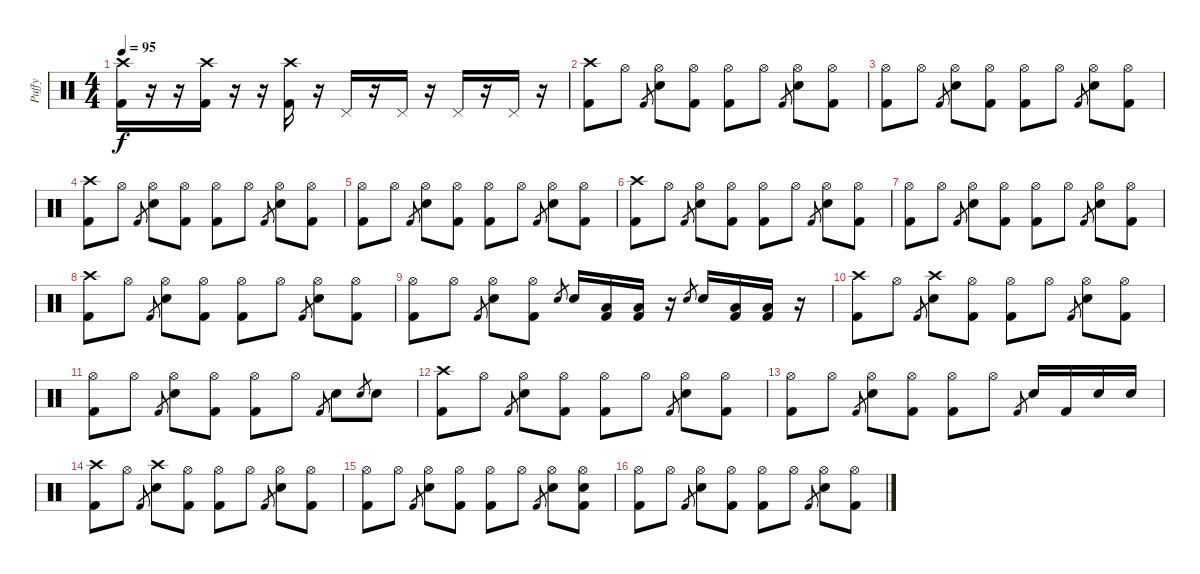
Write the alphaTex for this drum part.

\track ("Puffy" "Puffy") {instrument percussion}
\staff {score}
\articulation defaults
\ts (4 4)
\tempo 95
\clef neutral
\ks c
("Crash high (hit)" "Kick (hit) 2").16{dy f} r.16 r.16 ("Crash high (hit)" "Kick (hit) 2").16 r.16 r.16 ("Crash high (hit)" "Kick (hit) 2").16 r.16 "Pedal Hi-Hat (hit)".16 r.16 "Pedal Hi-Hat (hit)".16 r.16 "Pedal Hi-Hat (hit)".16 r.16 "Pedal Hi-Hat (hit)".16 r.16 |
("Crash high (hit)" "Kick (hit) 2").8 "Hi-Hat (open)".8 "Kick (hit) 2".8{gr} ("Hi-Hat (open)" "Snare (hit) 2").8 ("Hi-Hat (open)" "Kick (hit) 2").8 ("Hi-Hat (open)" "Kick (hit) 2").8 "Hi-Hat (open)".8 "Kick (hit) 2".8{gr} ("Hi-Hat (open)" "Snare (hit) 2").8 ("Hi-Hat (open)" "Kick (hit) 2").8 |
("Hi-Hat (open)" "Kick (hit) 2").8 "Hi-Hat (open)".8 "Kick (hit) 2".8{gr} ("Hi-Hat (open)" "Snare (hit) 2").8 ("Hi-Hat (open)" "Kick (hit) 2").8 ("Hi-Hat (open)" "Kick (hit) 2").8 "Hi-Hat (open)".8 "Kick (hit) 2".8{gr} ("Hi-Hat (open)" "Snare (hit) 2").8 ("Hi-Hat (open)" "Kick (hit) 2").8 |
("Crash high (hit)" "Kick (hit) 2").8 "Hi-Hat (open)".8 "Kick (hit) 2".8{gr} ("Hi-Hat (open)" "Snare (hit) 2").8 ("Hi-Hat (open)" "Kick (hit) 2").8 ("Hi-Hat (open)" "Kick (hit) 2").8 "Hi-Hat (open)".8 "Kick (hit) 2".8{gr} ("Hi-Hat (open)" "Snare (hit) 2").8 ("Hi-Hat (open)" "Kick (hit) 2").8 |
("Hi-Hat (open)" "Kick (hit) 2").8 "Hi-Hat (open)".8 "Kick (hit) 2".8{gr} ("Hi-Hat (open)" "Snare (hit) 2").8 ("Hi-Hat (open)" "Kick (hit) 2").8 ("Hi-Hat (open)" "Kick (hit) 2").8 "Hi-Hat (open)".8 "Kick (hit) 2".8{gr} ("Hi-Hat (open)" "Snare (hit) 2").8 ("Hi-Hat (open)" "Kick (hit) 2").8 |
("Crash high (hit)" "Kick (hit) 2").8 "Hi-Hat (open)".8 "Kick (hit) 2".8{gr} ("Hi-Hat (open)" "Snare (hit) 2").8 ("Hi-Hat (open)" "Kick (hit) 2").8 ("Hi-Hat (open)" "Kick (hit) 2").8 "Hi-Hat (open)".8 "Kick (hit) 2".8{gr} ("Hi-Hat (open)" "Snare (hit) 2").8 ("Hi-Hat (open)" "Kick (hit) 2").8 |
("Hi-Hat (open)" "Kick (hit) 2").8 "Hi-Hat (open)".8 "Kick (hit) 2".8{gr} ("Hi-Hat (open)" "Snare (hit) 2").8 ("Hi-Hat (open)" "Kick (hit) 2").8 ("Hi-Hat (open)" "Kick (hit) 2").8 "Hi-Hat (open)".8 "Kick (hit) 2".8{gr} ("Hi-Hat (open)" "Snare (hit) 2").8 ("Hi-Hat (open)" "Kick (hit) 2").8 |
("Crash high (hit)" "Kick (hit) 2").8 "Hi-Hat (open)".8 "Kick (hit) 2".8{gr} ("Hi-Hat (open)" "Snare (hit) 2").8 ("Hi-Hat (open)" "Kick (hit) 2").8 ("Hi-Hat (open)" "Kick (hit) 2").8 "Hi-Hat (open)".8 "Kick (hit) 2".8{gr} ("Hi-Hat (open)" "Snare (hit) 2").8 ("Hi-Hat (open)" "Kick (hit) 2").8 |
("Hi-Hat (open)" "Kick (hit) 2").8 "Hi-Hat (open)".8 "Kick (hit) 2".8{gr} ("Hi-Hat (open)" "Snare (hit) 2").8 ("Hi-Hat (open)" "Kick (hit) 2").8 "Snare (hit) 2".8{gr} "Snare (hit) 2".16 ("Low Floor Tom (hit)" "Kick (hit) 2").16 ("Low Floor Tom (hit)" "Kick (hit) 2").16 r.16 "Snare (hit) 2".8{gr} "Snare (hit) 2".16 ("Low Floor Tom (hit)" "Kick (hit) 2").16 ("Low Floor Tom (hit)" "Kick (hit) 2").16 r.16 |
("Crash high (hit)" "Kick (hit) 2").8 "Hi-Hat (open)".8 "Kick (hit) 2".8{gr} ("Crash high (hit)" "Snare (hit) 2").8 ("Hi-Hat (open)" "Kick (hit) 2").8 ("Hi-Hat (open)" "Kick (hit) 2").8 "Hi-Hat (open)".8 "Kick (hit) 2".8{gr} ("Hi-Hat (open)" "Snare (hit) 2").8 ("Hi-Hat (open)" "Kick (hit) 2").8 |
("Hi-Hat (open)" "Kick (hit) 2").8 "Hi-Hat (open)".8 "Kick (hit) 2".8{gr} ("Hi-Hat (open)" "Snare (hit) 2").8 ("Hi-Hat (open)" "Kick (hit) 2").8 ("Hi-Hat (open)" "Kick (hit) 2").8 "Hi-Hat (open)".8 "Kick (hit) 2".8{gr} "Snare (hit) 2".8 "Snare (hit) 2".8{gr} "Snare (hit) 2".8 |
("Crash high (hit)" "Kick (hit) 2").8 "Hi-Hat (open)".8 "Kick (hit) 2".8{gr} ("Hi-Hat (open)" "Snare (hit) 2").8 ("Hi-Hat (open)" "Kick (hit) 2").8 ("Hi-Hat (open)" "Kick (hit) 2").8 "Hi-Hat (open)".8 "Kick (hit) 2".8{gr} ("Hi-Hat (open)" "Snare (hit) 2").8 ("Hi-Hat (open)" "Kick (hit) 2").8 |
("Hi-Hat (open)" "Kick (hit) 2").8 "Hi-Hat (open)".8 "Kick (hit) 2".8{gr} ("Hi-Hat (open)" "Snare (hit) 2").8 ("Hi-Hat (open)" "Kick (hit) 2").8 ("Hi-Hat (open)" "Kick (hit) 2").8 "Hi-Hat (open)".8 "Kick (hit) 2".8{gr} "Snare (hit) 2".16 "Kick (hit) 2".16 "Snare (hit) 2".16 "Snare (hit) 2".16 |
("Crash high (hit)" "Kick (hit) 2").8 "Hi-Hat (open)".8 "Kick (hit) 2".8{gr} ("Crash high (hit)" "Snare (hit) 2").8 ("Hi-Hat (open)" "Kick (hit) 2").8 ("Hi-Hat (open)" "Kick (hit) 2").8 "Hi-Hat (open)".8 "Kick (hit) 2".8{gr} ("Hi-Hat (open)" "Snare (hit) 2").8 ("Hi-Hat (open)" "Kick (hit) 2").8 |
("Hi-Hat (open)" "Kick (hit) 2").8 "Hi-Hat (open)".8 "Kick (hit) 2".8{gr} ("Hi-Hat (open)" "Snare (hit) 2").8 ("Hi-Hat (open)" "Kick (hit) 2").8 ("Hi-Hat (open)" "Kick (hit) 2").8 "Hi-Hat (open)".8 "Kick (hit) 2".8{gr} ("Hi-Hat (open)" "Snare (hit) 2").8 ("Hi-Hat (open)" "Snare (hit) 2" "Kick (hit) 2").8 |
("Hi-Hat (open)" "Kick (hit) 2").8 "Hi-Hat (open)".8 "Kick (hit) 2".8{gr} ("Hi-Hat (open)" "Snare (hit) 2").8 ("Hi-Hat (open)" "Kick (hit) 2").8 ("Hi-Hat (open)" "Kick (hit) 2").8 "Hi-Hat (open)".8 "Kick (hit) 2".8{gr} ("Hi-Hat (open)" "Snare (hit) 2").8 ("Hi-Hat (open)" "Kick (hit) 2").8
